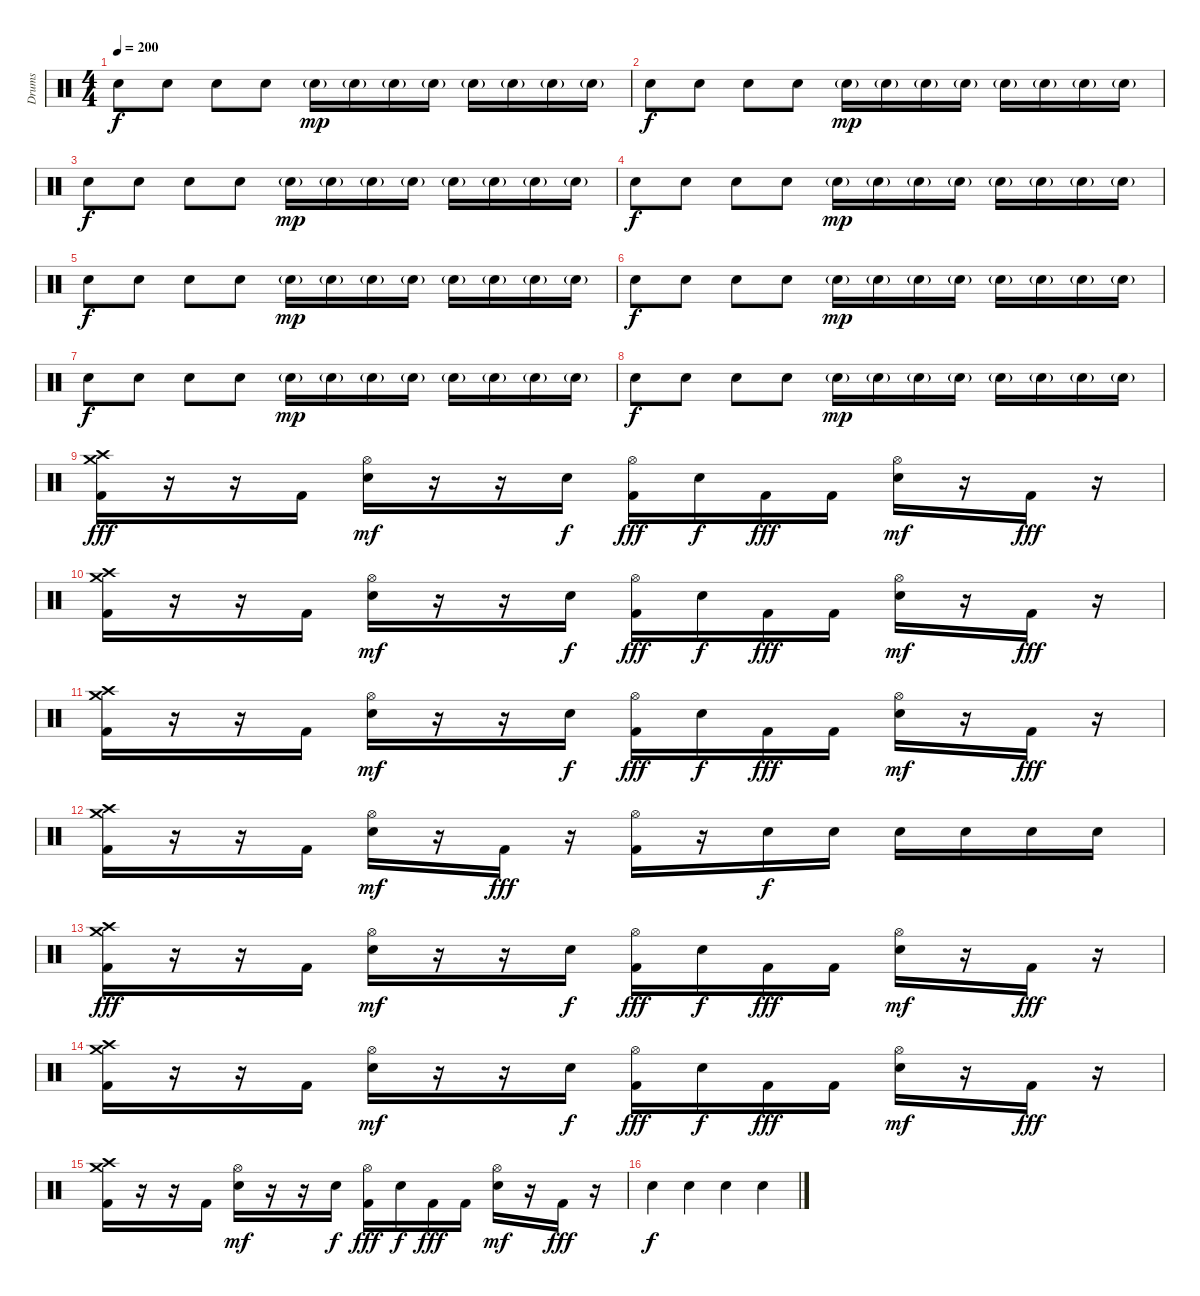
\track ("Drums" "Drums") {instrument percussion}
\staff {score}
\articulation defaults
\ts (4 4)
\tempo 200
\clef neutral
\ks c "Snare (hit) 2".8{dy f} "Snare (hit) 2".8 "Snare (hit) 2".8 "Snare (hit) 2".8 "Snare (hit) 2"{g}.16{dy mp} "Snare (hit) 2"{g}.16 "Snare (hit) 2"{g}.16 "Snare (hit) 2"{g}.16 "Snare (hit) 2"{g}.16 "Snare (hit) 2"{g}.16 "Snare (hit) 2"{g}.16 "Snare (hit) 2"{g}.16
|
"Snare (hit) 2".8{dy f} "Snare (hit) 2".8 "Snare (hit) 2".8 "Snare (hit) 2".8 "Snare (hit) 2"{g}.16{dy mp} "Snare (hit) 2"{g}.16 "Snare (hit) 2"{g}.16 "Snare (hit) 2"{g}.16 "Snare (hit) 2"{g}.16 "Snare (hit) 2"{g}.16 "Snare (hit) 2"{g}.16 "Snare (hit) 2"{g}.16 |
"Snare (hit) 2".8{dy f} "Snare (hit) 2".8 "Snare (hit) 2".8 "Snare (hit) 2".8 "Snare (hit) 2"{g}.16{dy mp} "Snare (hit) 2"{g}.16 "Snare (hit) 2"{g}.16 "Snare (hit) 2"{g}.16 "Snare (hit) 2"{g}.16 "Snare (hit) 2"{g}.16 "Snare (hit) 2"{g}.16 "Snare (hit) 2"{g}.16 |
"Snare (hit) 2".8{dy f} "Snare (hit) 2".8 "Snare (hit) 2".8 "Snare (hit) 2".8 "Snare (hit) 2"{g}.16{dy mp} "Snare (hit) 2"{g}.16 "Snare (hit) 2"{g}.16 "Snare (hit) 2"{g}.16 "Snare (hit) 2"{g}.16 "Snare (hit) 2"{g}.16 "Snare (hit) 2"{g}.16 "Snare (hit) 2"{g}.16 |
"Snare (hit) 2".8{dy f} "Snare (hit) 2".8 "Snare (hit) 2".8 "Snare (hit) 2".8 "Snare (hit) 2"{g}.16{dy mp} "Snare (hit) 2"{g}.16 "Snare (hit) 2"{g}.16 "Snare (hit) 2"{g}.16 "Snare (hit) 2"{g}.16 "Snare (hit) 2"{g}.16 "Snare (hit) 2"{g}.16 "Snare (hit) 2"{g}.16 |
"Snare (hit) 2".8{dy f} "Snare (hit) 2".8 "Snare (hit) 2".8 "Snare (hit) 2".8 "Snare (hit) 2"{g}.16{dy mp} "Snare (hit) 2"{g}.16 "Snare (hit) 2"{g}.16 "Snare (hit) 2"{g}.16 "Snare (hit) 2"{g}.16 "Snare (hit) 2"{g}.16 "Snare (hit) 2"{g}.16 "Snare (hit) 2"{g}.16 |
"Snare (hit) 2".8{dy f} "Snare (hit) 2".8 "Snare (hit) 2".8 "Snare (hit) 2".8 "Snare (hit) 2"{g}.16{dy mp} "Snare (hit) 2"{g}.16 "Snare (hit) 2"{g}.16 "Snare (hit) 2"{g}.16 "Snare (hit) 2"{g}.16 "Snare (hit) 2"{g}.16 "Snare (hit) 2"{g}.16 "Snare (hit) 2"{g}.16 |
"Snare (hit) 2".8{dy f} "Snare (hit) 2".8 "Snare (hit) 2".8 "Snare (hit) 2".8 "Snare (hit) 2"{g}.16{dy mp} "Snare (hit) 2"{g}.16 "Snare (hit) 2"{g}.16 "Snare (hit) 2"{g}.16 "Snare (hit) 2"{g}.16 "Snare (hit) 2"{g}.16 "Snare (hit) 2"{g}.16 "Snare (hit) 2"{g}.16 |
("Crash medium (hit)" "Crash high (hit)" "Kick (hit) 2").16{dy fff} r.16 r.16 "Kick (hit) 2".16 ("Hi-Hat (open)" "Snare (hit) 2").16{dy mf} r.16 r.16 "Snare (hit) 2".16{dy f} ("Hi-Hat (open)" "Kick (hit) 2").16{dy fff} "Snare (hit) 2".16{dy f} "Kick (hit) 2".16{dy fff} "Kick (hit) 2".16 ("Hi-Hat (open)" "Snare (hit) 2").16{dy mf} r.16 "Kick (hit) 2".16{dy fff} r.16 |
("Crash medium (hit)" "Crash high (hit)" "Kick (hit) 2").16 r.16 r.16 "Kick (hit) 2".16 ("Hi-Hat (open)" "Snare (hit) 2").16{dy mf} r.16 r.16 "Snare (hit) 2".16{dy f} ("Hi-Hat (open)" "Kick (hit) 2").16{dy fff} "Snare (hit) 2".16{dy f} "Kick (hit) 2".16{dy fff} "Kick (hit) 2".16 ("Hi-Hat (open)" "Snare (hit) 2").16{dy mf} r.16 "Kick (hit) 2".16{dy fff} r.16 |
("Crash medium (hit)" "Crash high (hit)" "Kick (hit) 2").16 r.16 r.16 "Kick (hit) 2".16 ("Hi-Hat (open)" "Snare (hit) 2").16{dy mf} r.16 r.16 "Snare (hit) 2".16{dy f} ("Hi-Hat (open)" "Kick (hit) 2").16{dy fff} "Snare (hit) 2".16{dy f} "Kick (hit) 2".16{dy fff} "Kick (hit) 2".16 ("Hi-Hat (open)" "Snare (hit) 2").16{dy mf} r.16 "Kick (hit) 2".16{dy fff} r.16 |
("Crash medium (hit)" "Crash high (hit)" "Kick (hit) 2").16 r.16 r.16 "Kick (hit) 2".16 ("Hi-Hat (open)" "Snare (hit) 2").16{dy mf} r.16 "Kick (hit) 2".16{dy fff} r.16 ("Hi-Hat (open)" "Kick (hit) 2").16 r.16 "Snare (hit) 2".16{dy f} "Snare (hit) 2".16 "Snare (hit) 2".16 "Snare (hit) 2".16 "Snare (hit) 2".16 "Snare (hit) 2".16 |
("Crash medium (hit)" "Crash high (hit)" "Kick (hit) 2").16{dy fff} r.16 r.16 "Kick (hit) 2".16 ("Hi-Hat (open)" "Snare (hit) 2").16{dy mf} r.16 r.16 "Snare (hit) 2".16{dy f} ("Hi-Hat (open)" "Kick (hit) 2").16{dy fff} "Snare (hit) 2".16{dy f} "Kick (hit) 2".16{dy fff} "Kick (hit) 2".16 ("Hi-Hat (open)" "Snare (hit) 2").16{dy mf} r.16 "Kick (hit) 2".16{dy fff} r.16 |
("Crash medium (hit)" "Crash high (hit)" "Kick (hit) 2").16 r.16 r.16 "Kick (hit) 2".16 ("Hi-Hat (open)" "Snare (hit) 2").16{dy mf} r.16 r.16 "Snare (hit) 2".16{dy f} ("Hi-Hat (open)" "Kick (hit) 2").16{dy fff} "Snare (hit) 2".16{dy f} "Kick (hit) 2".16{dy fff} "Kick (hit) 2".16 ("Hi-Hat (open)" "Snare (hit) 2").16{dy mf} r.16 "Kick (hit) 2".16{dy fff} r.16 |
("Crash medium (hit)" "Crash high (hit)" "Kick (hit) 2").16 r.16 r.16 "Kick (hit) 2".16 ("Hi-Hat (open)" "Snare (hit) 2").16{dy mf} r.16 r.16 "Snare (hit) 2".16{dy f} ("Hi-Hat (open)" "Kick (hit) 2").16{dy fff} "Snare (hit) 2".16{dy f} "Kick (hit) 2".16{dy fff} "Kick (hit) 2".16 ("Hi-Hat (open)" "Snare (hit) 2").16{dy mf} r.16 "Kick (hit) 2".16{dy fff} r.16 |
"Snare (hit) 2".4{dy f} "Snare (hit) 2".4 "Snare (hit) 2".4 "Snare (hit) 2".4
